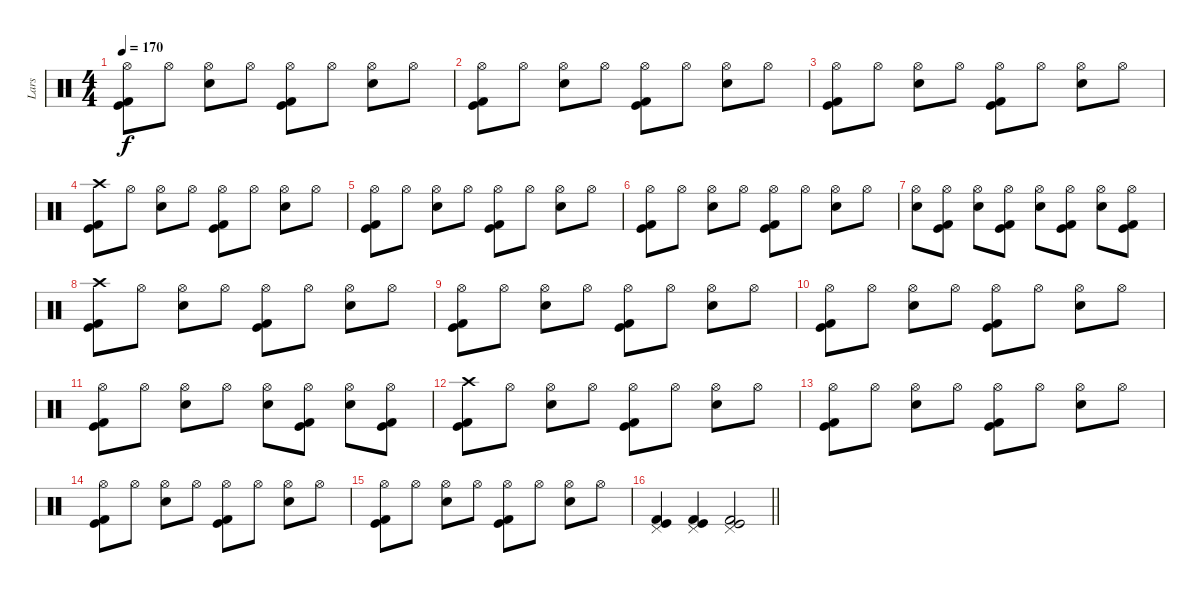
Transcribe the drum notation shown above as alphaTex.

\track ("Lars" "Lars") {instrument percussion}
\staff {score}
\articulation defaults
\ts (4 4)
\tempo 170
\clef neutral
\ks c
("Hi-Hat (open)" "Kick (hit)" "Kick (hit) 2").8{dy f} "Hi-Hat (open)".8 ("Hi-Hat (open)" "Electric Snare (hit)").8 "Hi-Hat (open)".8 ("Hi-Hat (open)" "Kick (hit)" "Kick (hit) 2").8 "Hi-Hat (open)".8 ("Hi-Hat (open)" "Electric Snare (hit)").8 "Hi-Hat (open)".8 |
("Hi-Hat (open)" "Kick (hit)" "Kick (hit) 2").8 "Hi-Hat (open)".8 ("Hi-Hat (open)" "Electric Snare (hit)").8 "Hi-Hat (open)".8 ("Hi-Hat (open)" "Kick (hit)" "Kick (hit) 2").8 "Hi-Hat (open)".8 ("Hi-Hat (open)" "Electric Snare (hit)").8 "Hi-Hat (open)".8 |
("Hi-Hat (open)" "Kick (hit)" "Kick (hit) 2").8 "Hi-Hat (open)".8 ("Hi-Hat (open)" "Electric Snare (hit)").8 "Hi-Hat (open)".8 ("Hi-Hat (open)" "Kick (hit)" "Kick (hit) 2").8 "Hi-Hat (open)".8 ("Hi-Hat (open)" "Electric Snare (hit)").8 "Hi-Hat (open)".8 |
("Crash high (hit)" "Kick (hit)" "Kick (hit) 2").8 "Hi-Hat (open)".8 ("Hi-Hat (open)" "Electric Snare (hit)").8 "Hi-Hat (open)".8 ("Hi-Hat (open)" "Kick (hit)" "Kick (hit) 2").8 "Hi-Hat (open)".8 ("Hi-Hat (open)" "Electric Snare (hit)").8 "Hi-Hat (open)".8 |
("Hi-Hat (open)" "Kick (hit)" "Kick (hit) 2").8 "Hi-Hat (open)".8 ("Hi-Hat (open)" "Electric Snare (hit)").8 "Hi-Hat (open)".8 ("Hi-Hat (open)" "Kick (hit)" "Kick (hit) 2").8 "Hi-Hat (open)".8 ("Hi-Hat (open)" "Electric Snare (hit)").8 "Hi-Hat (open)".8 |
("Hi-Hat (open)" "Kick (hit)" "Kick (hit) 2").8 "Hi-Hat (open)".8 ("Hi-Hat (open)" "Electric Snare (hit)").8 "Hi-Hat (open)".8 ("Hi-Hat (open)" "Kick (hit)" "Kick (hit) 2").8 "Hi-Hat (open)".8 ("Hi-Hat (open)" "Electric Snare (hit)").8 "Hi-Hat (open)".8 |
("Hi-Hat (open)" "Electric Snare (hit)").8 ("Hi-Hat (open)" "Kick (hit)" "Kick (hit) 2").8 ("Hi-Hat (open)" "Electric Snare (hit)").8 ("Hi-Hat (open)" "Kick (hit)" "Kick (hit) 2").8 ("Hi-Hat (open)" "Electric Snare (hit)").8 ("Hi-Hat (open)" "Kick (hit)" "Kick (hit) 2").8 ("Hi-Hat (open)" "Electric Snare (hit)").8 ("Hi-Hat (open)" "Kick (hit)" "Kick (hit) 2").8 |
("Crash high (hit)" "Kick (hit)" "Kick (hit) 2").8 "Hi-Hat (open)".8 ("Hi-Hat (open)" "Electric Snare (hit)").8 "Hi-Hat (open)".8 ("Hi-Hat (open)" "Kick (hit)" "Kick (hit) 2").8 "Hi-Hat (open)".8 ("Hi-Hat (open)" "Electric Snare (hit)").8 "Hi-Hat (open)".8 |
("Hi-Hat (open)" "Kick (hit)" "Kick (hit) 2").8 "Hi-Hat (open)".8 ("Hi-Hat (open)" "Electric Snare (hit)").8 "Hi-Hat (open)".8 ("Hi-Hat (open)" "Kick (hit)" "Kick (hit) 2").8 "Hi-Hat (open)".8 ("Hi-Hat (open)" "Electric Snare (hit)").8 "Hi-Hat (open)".8 |
("Hi-Hat (open)" "Kick (hit)" "Kick (hit) 2").8 "Hi-Hat (open)".8 ("Hi-Hat (open)" "Electric Snare (hit)").8 "Hi-Hat (open)".8 ("Hi-Hat (open)" "Kick (hit)" "Kick (hit) 2").8 "Hi-Hat (open)".8 ("Hi-Hat (open)" "Electric Snare (hit)").8 "Hi-Hat (open)".8 |
("Hi-Hat (open)" "Kick (hit)" "Kick (hit) 2").8 "Hi-Hat (open)".8 ("Hi-Hat (open)" "Electric Snare (hit)").8 "Hi-Hat (open)".8 ("Hi-Hat (open)" "Electric Snare (hit)").8 ("Hi-Hat (open)" "Kick (hit)" "Kick (hit) 2").8 ("Hi-Hat (open)" "Electric Snare (hit)").8 ("Hi-Hat (open)" "Kick (hit)" "Kick (hit) 2").8 |
("Crash high (hit)" "Kick (hit)" "Kick (hit) 2").8 "Hi-Hat (open)".8 ("Hi-Hat (open)" "Electric Snare (hit)").8 "Hi-Hat (open)".8 ("Hi-Hat (open)" "Kick (hit)" "Kick (hit) 2").8 "Hi-Hat (open)".8 ("Hi-Hat (open)" "Electric Snare (hit)").8 "Hi-Hat (open)".8 |
("Hi-Hat (open)" "Kick (hit)" "Kick (hit) 2").8 "Hi-Hat (open)".8 ("Hi-Hat (open)" "Electric Snare (hit)").8 "Hi-Hat (open)".8 ("Hi-Hat (open)" "Kick (hit)" "Kick (hit) 2").8 "Hi-Hat (open)".8 ("Hi-Hat (open)" "Electric Snare (hit)").8 "Hi-Hat (open)".8 |
("Hi-Hat (open)" "Kick (hit)" "Kick (hit) 2").8 "Hi-Hat (open)".8 ("Hi-Hat (open)" "Electric Snare (hit)").8 "Hi-Hat (open)".8 ("Hi-Hat (open)" "Kick (hit)" "Kick (hit) 2").8 "Hi-Hat (open)".8 ("Hi-Hat (open)" "Electric Snare (hit)").8 "Hi-Hat (open)".8 |
("Hi-Hat (open)" "Kick (hit)" "Kick (hit) 2").8 "Hi-Hat (open)".8 ("Hi-Hat (open)" "Electric Snare (hit)").8 "Hi-Hat (open)".8 ("Hi-Hat (open)" "Kick (hit)" "Kick (hit) 2").8 "Hi-Hat (open)".8 ("Hi-Hat (open)" "Electric Snare (hit)").8 "Hi-Hat (open)".8 |
\barLineRight lightlight
("Pedal Hi-Hat (hit)" "Kick (hit)" "Kick (hit) 2").4 ("Pedal Hi-Hat (hit)" "Kick (hit)" "Kick (hit) 2").4 ("Pedal Hi-Hat (hit)" "Kick (hit)" "Kick (hit) 2").2
